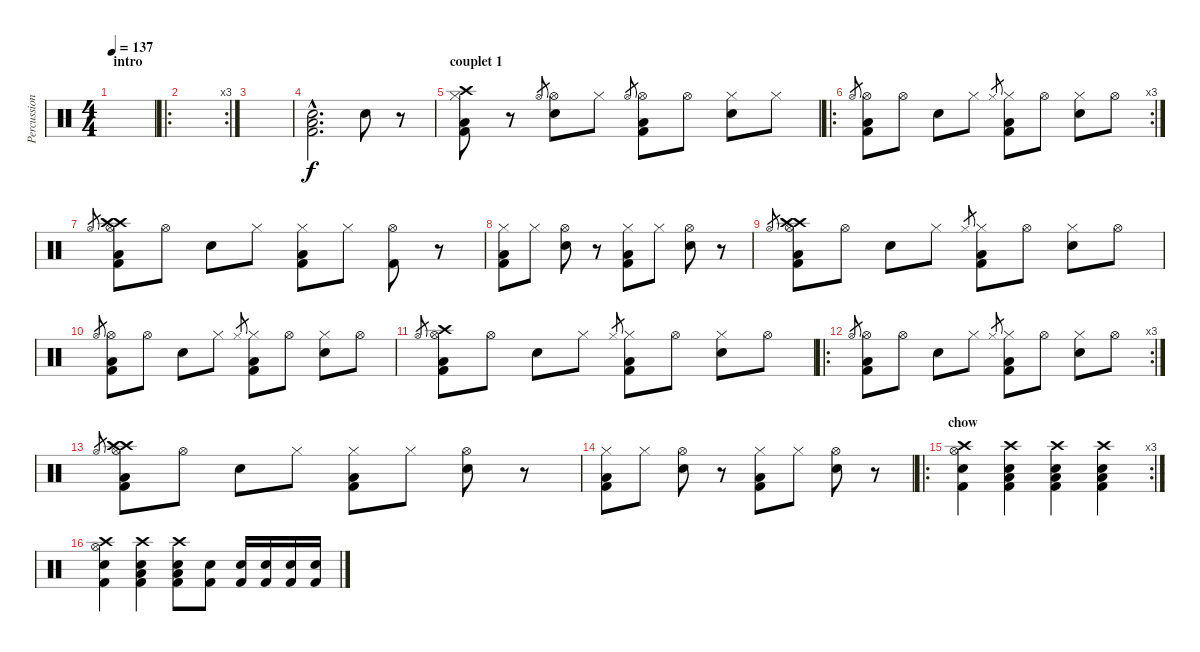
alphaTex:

\track ("Percussions" "Percussion") {instrument percussion}
\staff {score}
\articulation defaults
\ts (4 4)
\section ("" "intro")
\tempo 137
\clef neutral
\ks c
|
\ro
\rc 3
|
|
("Low Floor Tom (hit)"{hac} "Kick (hit) 2"{hac} "Snare (hit) 2"{hac}).2{d} "Snare (hit) 2".8 r.8 |
\section ("" "couplet 1")
("Hi-Hat (closed)" "Crash high (hit)" "Kick (hit) 2" "Low Floor Tom (hit)").8 r.8 "Hi-Hat (open)".8{gr} ("Hi-Hat (open)" "Snare (hit) 2").8 "Hi-Hat (closed)".8 "Hi-Hat (open)".8{gr} ("Hi-Hat (open)" "Kick (hit) 2" "Low Floor Tom (hit)").8 "Hi-Hat (open)".8 ("Hi-Hat (closed)" "Snare (hit) 2").8 "Hi-Hat (closed)".8 |
\ro
\rc 3 "Hi-Hat (open)".8{gr}
("Hi-Hat (open)" "Kick (hit) 2" "Low Floor Tom (hit)").8 "Hi-Hat (open)".8 "Snare (hit) 2".8 "Hi-Hat (closed)".8 "Hi-Hat (closed)".8{gr} ("Hi-Hat (closed)" "Kick (hit) 2" "Low Floor Tom (hit)").8 "Hi-Hat (open)".8 ("Hi-Hat (closed)" "Snare (hit) 2").8 "Hi-Hat (open)".8 |
"Hi-Hat (open)".8{gr} ("Hi-Hat (open)" "Crash high (hit)" "Crash high (hit)" "Kick (hit) 2" "Low Floor Tom (hit)").8 "Hi-Hat (open)".8 "Snare (hit) 2".8 "Hi-Hat (closed)".8 ("Hi-Hat (closed)" "Kick (hit) 2" "Low Floor Tom (hit)").8 "Hi-Hat (closed)".8 ("Hi-Hat (open)" "Kick (hit) 2").8 r.8 |
("Hi-Hat (closed)" "Kick (hit) 2" "Low Floor Tom (hit)").8 "Hi-Hat (closed)".8 ("Hi-Hat (open)" "Snare (hit) 2").8 r.8 ("Hi-Hat (closed)" "Kick (hit) 2" "Low Floor Tom (hit)").8 "Hi-Hat (closed)".8 ("Hi-Hat (open)" "Snare (hit) 2").8 r.8 |
"Hi-Hat (open)".8{gr} ("Hi-Hat (open)" "Crash high (hit)" "Crash high (hit)" "Kick (hit) 2" "Low Floor Tom (hit)").8 "Hi-Hat (open)".8 "Snare (hit) 2".8 "Hi-Hat (closed)".8 "Hi-Hat (closed)".8{gr} ("Hi-Hat (closed)" "Kick (hit) 2" "Low Floor Tom (hit)").8 "Hi-Hat (open)".8 ("Hi-Hat (closed)" "Snare (hit) 2").8 "Hi-Hat (open)".8 |
"Hi-Hat (open)".8{gr} ("Hi-Hat (open)" "Kick (hit) 2" "Low Floor Tom (hit)").8 "Hi-Hat (open)".8 "Snare (hit) 2".8 "Hi-Hat (closed)".8 "Hi-Hat (closed)".8{gr} ("Hi-Hat (closed)" "Kick (hit) 2" "Low Floor Tom (hit)").8 "Hi-Hat (open)".8 ("Hi-Hat (closed)" "Snare (hit) 2").8 "Hi-Hat (open)".8 |
"Hi-Hat (open)".8{gr} ("Hi-Hat (open)" "Crash high (hit)" "Kick (hit) 2" "Low Floor Tom (hit)").8 "Hi-Hat (open)".8 "Snare (hit) 2".8 "Hi-Hat (closed)".8 "Hi-Hat (closed)".8{gr} ("Hi-Hat (closed)" "Kick (hit) 2" "Low Floor Tom (hit)").8 "Hi-Hat (open)".8 ("Hi-Hat (closed)" "Snare (hit) 2").8 "Hi-Hat (open)".8 |
\ro
\rc 3 "Hi-Hat (open)".8{gr}
("Hi-Hat (open)" "Kick (hit) 2" "Low Floor Tom (hit)").8 "Hi-Hat (open)".8 "Snare (hit) 2".8 "Hi-Hat (closed)".8 "Hi-Hat (closed)".8{gr} ("Hi-Hat (closed)" "Kick (hit) 2" "Low Floor Tom (hit)").8 "Hi-Hat (open)".8 ("Hi-Hat (closed)" "Snare (hit) 2").8 "Hi-Hat (open)".8 |
"Hi-Hat (open)".8{gr} ("Hi-Hat (open)" "Crash high (hit)" "Crash high (hit)" "Kick (hit) 2" "Low Floor Tom (hit)").8 "Hi-Hat (open)".8 "Snare (hit) 2".8 "Hi-Hat (closed)".8 ("Hi-Hat (closed)" "Kick (hit) 2" "Low Floor Tom (hit)").8 "Hi-Hat (closed)".8 ("Hi-Hat (open)" "Snare (hit) 2").8 r.8 |
("Hi-Hat (closed)" "Kick (hit) 2" "Low Floor Tom (hit)").8 "Hi-Hat (closed)".8 ("Hi-Hat (open)" "Snare (hit) 2").8 r.8 ("Hi-Hat (closed)" "Kick (hit) 2" "Low Floor Tom (hit)").8 "Hi-Hat (closed)".8 ("Hi-Hat (open)" "Snare (hit) 2").8 r.8 |
\ro
\rc 3
\section ("" "chow")
("Kick (hit) 2" "Hi-Hat (open)" "Snare (hit) 2" "Crash high (hit)").4 ("Kick (hit) 2" "Low Floor Tom (hit)" "Snare (hit) 2" "Crash high (hit)").4 ("Kick (hit) 2" "Low Floor Tom (hit)" "Snare (hit) 2" "Crash high (hit)").4 ("Kick (hit) 2" "Low Floor Tom (hit)" "Snare (hit) 2" "Crash high (hit)").4 |
("Kick (hit) 2" "Hi-Hat (open)" "Snare (hit) 2" "Crash high (hit)").4 ("Kick (hit) 2" "Low Floor Tom (hit)" "Snare (hit) 2" "Crash high (hit)").4 ("Kick (hit) 2" "Low Floor Tom (hit)" "Snare (hit) 2" "Crash high (hit)").8 ("Snare (hit) 2" "Kick (hit) 2").8 ("Snare (hit) 2" "Kick (hit) 2").16 ("Snare (hit) 2" "Kick (hit) 2").16 ("Snare (hit) 2" "Kick (hit) 2").16 ("Snare (hit) 2" "Kick (hit) 2").16
